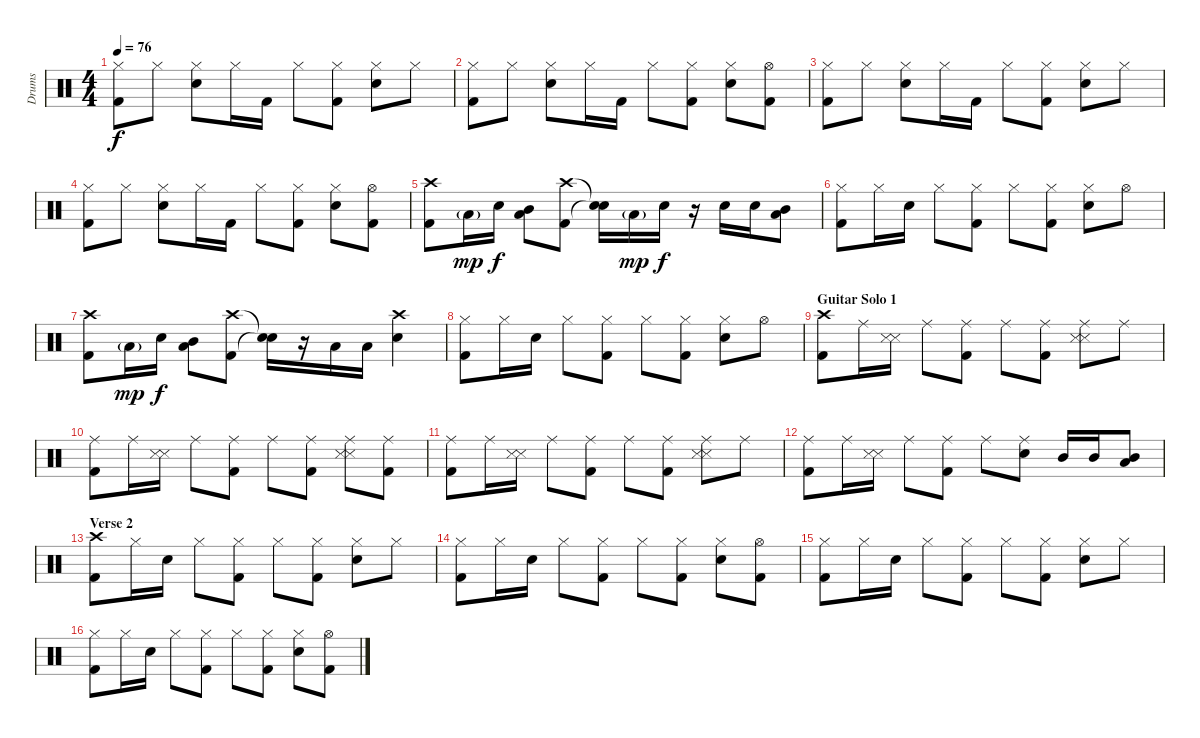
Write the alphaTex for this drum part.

\track ("Drums" "Drums") {instrument percussion}
\staff {score}
\articulation defaults
\ts (4 4)
\tempo 76
\clef neutral
\ks c
("Hi-Hat (closed)" "Kick (hit) 2").8{dy f} "Hi-Hat (closed)".8 ("Hi-Hat (closed)" "Electric Snare (hit)").8 "Hi-Hat (closed)".16 "Kick (hit) 2".16 "Hi-Hat (closed)".8 ("Hi-Hat (closed)" "Kick (hit) 2").8 ("Hi-Hat (closed)" "Electric Snare (hit)").8 "Hi-Hat (closed)".8 |
("Hi-Hat (closed)" "Kick (hit) 2").8 "Hi-Hat (closed)".8 ("Hi-Hat (closed)" "Electric Snare (hit)").8 "Hi-Hat (closed)".16 "Kick (hit) 2".16 "Hi-Hat (closed)".8 ("Hi-Hat (closed)" "Kick (hit) 2").8 ("Hi-Hat (closed)" "Electric Snare (hit)").8 ("Hi-Hat (open)" "Kick (hit) 2").8 |
("Hi-Hat (closed)" "Kick (hit) 2").8 "Hi-Hat (closed)".8 ("Hi-Hat (closed)" "Electric Snare (hit)").8 "Hi-Hat (closed)".16 "Kick (hit) 2".16 "Hi-Hat (closed)".8 ("Hi-Hat (closed)" "Kick (hit) 2").8 ("Hi-Hat (closed)" "Electric Snare (hit)").8 "Hi-Hat (closed)".8 |
("Hi-Hat (closed)" "Kick (hit) 2").8 "Hi-Hat (closed)".8 ("Hi-Hat (closed)" "Electric Snare (hit)").8 "Hi-Hat (closed)".16 "Kick (hit) 2".16 "Hi-Hat (closed)".8 ("Hi-Hat (closed)" "Kick (hit) 2").8 ("Hi-Hat (closed)" "Electric Snare (hit)").8 ("Hi-Hat (open)" "Kick (hit) 2").8 |
\section ("" "")
("Crash high (hit)" "Kick (hit) 2").8 "Low Tom (hit)"{g}.16{dy mp} "Electric Snare (hit)".16{dy f} ("Low Tom (hit)" "Mid Tom (hit)").8 ("Crash high (hit)" "Kick (hit) 2").8 ("Snare (hit)"{t} "Snare (hit)"{t}).16 "Low Tom (hit)"{g}.16{dy mp} "Electric Snare (hit)".16{dy f} r.16 "Electric Snare (hit)".16 "Electric Snare (hit)".16 ("Low Tom (hit)" "Mid Tom (hit)").8 |
("Hi-Hat (closed)" "Kick (hit) 2").8 "Hi-Hat (closed)".16 "Electric Snare (hit)".16 "Hi-Hat (closed)".8 ("Hi-Hat (closed)" "Kick (hit) 2").8 "Hi-Hat (closed)".8 ("Hi-Hat (closed)" "Kick (hit) 2").8 ("Hi-Hat (closed)" "Electric Snare (hit)").8 "Hi-Hat (open)".8 |
("Crash high (hit)" "Kick (hit) 2").8 "Low Tom (hit)"{g}.16{dy mp} "Electric Snare (hit)".16{dy f} ("Low Tom (hit)" "Mid Tom (hit)").8 ("Crash high (hit)" "Kick (hit) 2").8 ("Snare (hit)"{t} "Snare (hit)"{t}).16 r.16 "Low Tom (hit)".16 "Low Tom (hit)".16 ("Crash high (hit)" "Electric Snare (hit)").4 |
("Hi-Hat (closed)" "Kick (hit) 2").8 "Hi-Hat (closed)".16 "Electric Snare (hit)".16 "Hi-Hat (closed)".8 ("Hi-Hat (closed)" "Kick (hit) 2").8 "Hi-Hat (closed)".8 ("Hi-Hat (closed)" "Kick (hit) 2").8 ("Hi-Hat (closed)" "Electric Snare (hit)").8 "Hi-Hat (open)".8 |
\section ("" "Guitar Solo 1")
("Crash high (hit)" "Kick (hit) 2").8 "Ride (middle)".16 ("Snare (side stick) 3" "Snare (side stick) 3").16 "Ride (middle)".8 ("Ride (middle)" "Kick (hit) 2").8 "Ride (middle)".8 ("Ride (middle)" "Kick (hit) 2").8 ("Snare (side stick) 3" "Ride (middle)" "Snare (side stick) 3").8 "Ride (middle)".8 |
("Ride (middle)" "Kick (hit) 2").8 "Ride (middle)".16 ("Snare (side stick) 3" "Snare (side stick) 3").16 "Ride (middle)".8 ("Ride (middle)" "Kick (hit) 2").8 "Ride (middle)".8 ("Ride (middle)" "Kick (hit) 2").8 ("Snare (side stick) 3" "Ride (middle)" "Snare (side stick) 3").8 ("Ride (middle)" "Kick (hit) 2").8 |
("Ride (middle)" "Kick (hit) 2").8 "Ride (middle)".16 ("Snare (side stick) 3" "Snare (side stick) 3").16 "Ride (middle)".8 ("Ride (middle)" "Kick (hit) 2").8 "Ride (middle)".8 ("Ride (middle)" "Kick (hit) 2").8 ("Snare (side stick) 3" "Ride (middle)" "Snare (side stick) 3").8 "Ride (middle)".8 |
("Ride (middle)" "Kick (hit) 2").8 "Ride (middle)".16 ("Snare (side stick) 3" "Snare (side stick) 3").16 "Ride (middle)".8 ("Ride (middle)" "Kick (hit) 2").8 "Ride (middle)".8 ("Ride (middle)" "Electric Snare (hit)").8 "Mid Tom (hit)".16 "Mid Tom (hit)".16 ("Mid Tom (hit)" "Low Tom (hit)").8 |
\section ("" "Verse 2")
("Crash high (hit)" "Kick (hit) 2").8 "Hi-Hat (closed)".16 "Electric Snare (hit)".16 "Hi-Hat (closed)".8 ("Hi-Hat (closed)" "Kick (hit) 2").8 "Hi-Hat (closed)".8 ("Hi-Hat (closed)" "Kick (hit) 2").8 ("Hi-Hat (closed)" "Electric Snare (hit)").8 "Hi-Hat (closed)".8 |
("Hi-Hat (closed)" "Kick (hit) 2").8 "Hi-Hat (closed)".16 "Electric Snare (hit)".16 "Hi-Hat (closed)".8 ("Hi-Hat (closed)" "Kick (hit) 2").8 "Hi-Hat (closed)".8 ("Hi-Hat (closed)" "Kick (hit) 2").8 ("Hi-Hat (closed)" "Electric Snare (hit)").8 ("Hi-Hat (open)" "Kick (hit) 2").8 |
("Hi-Hat (closed)" "Kick (hit) 2").8 "Hi-Hat (closed)".16 "Electric Snare (hit)".16 "Hi-Hat (closed)".8 ("Hi-Hat (closed)" "Kick (hit) 2").8 "Hi-Hat (closed)".8 ("Hi-Hat (closed)" "Kick (hit) 2").8 ("Hi-Hat (closed)" "Electric Snare (hit)").8 "Hi-Hat (closed)".8 |
("Hi-Hat (closed)" "Kick (hit) 2").8 "Hi-Hat (closed)".16 "Electric Snare (hit)".16 "Hi-Hat (closed)".8 ("Hi-Hat (closed)" "Kick (hit) 2").8 "Hi-Hat (closed)".8 ("Hi-Hat (closed)" "Kick (hit) 2").8 ("Hi-Hat (closed)" "Electric Snare (hit)").8 ("Hi-Hat (open)" "Kick (hit) 2").8
